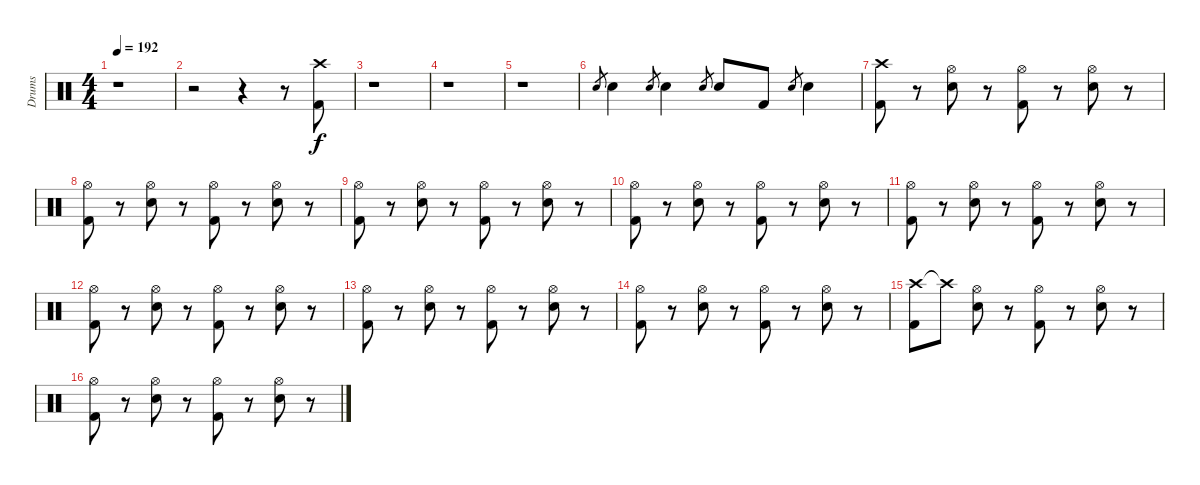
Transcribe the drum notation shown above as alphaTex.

\track ("Drums" "Drums") {instrument percussion}
\staff {score}
\articulation defaults
\ts (4 4)
\tempo 192
\clef neutral
\ks c
r.1{dy f} |
r.2 r.4 r.8 ("Crash high (hit)" "Kick (hit) 2").8 |
r.1 |
r.1 |
r.1 |
"Snare (hit) 2".8{gr} "Snare (hit) 2".4 "Snare (hit) 2".8{gr} "Snare (hit) 2".4 "Snare (hit) 2".8{gr} "Snare (hit) 2".8 "Kick (hit) 2".8 "Snare (hit) 2".8{gr} "Snare (hit) 2".4 |
("Crash high (hit)" "Kick (hit) 2").8 r.8 ("Hi-Hat (open)" "Snare (hit) 2").8 r.8 ("Hi-Hat (open)" "Kick (hit) 2").8 r.8 ("Hi-Hat (open)" "Snare (hit) 2").8 r.8 |
("Hi-Hat (open)" "Kick (hit) 2").8 r.8 ("Hi-Hat (open)" "Snare (hit) 2").8 r.8 ("Hi-Hat (open)" "Kick (hit) 2").8 r.8 ("Hi-Hat (open)" "Snare (hit) 2").8 r.8 |
("Hi-Hat (open)" "Kick (hit) 2").8 r.8 ("Hi-Hat (open)" "Snare (hit) 2").8 r.8 ("Hi-Hat (open)" "Kick (hit) 2").8 r.8 ("Hi-Hat (open)" "Snare (hit) 2").8 r.8 |
("Hi-Hat (open)" "Kick (hit) 2").8 r.8 ("Hi-Hat (open)" "Snare (hit) 2").8 r.8 ("Hi-Hat (open)" "Kick (hit) 2").8 r.8 ("Hi-Hat (open)" "Snare (hit) 2").8 r.8 |
("Hi-Hat (open)" "Kick (hit) 2").8 r.8 ("Hi-Hat (open)" "Snare (hit) 2").8 r.8 ("Hi-Hat (open)" "Kick (hit) 2").8 r.8 ("Hi-Hat (open)" "Snare (hit) 2").8 r.8 |
("Hi-Hat (open)" "Kick (hit) 2").8 r.8 ("Hi-Hat (open)" "Snare (hit) 2").8 r.8 ("Hi-Hat (open)" "Kick (hit) 2").8 r.8 ("Hi-Hat (open)" "Snare (hit) 2").8 r.8 |
("Hi-Hat (open)" "Kick (hit) 2").8 r.8 ("Hi-Hat (open)" "Snare (hit) 2").8 r.8 ("Hi-Hat (open)" "Kick (hit) 2").8 r.8 ("Hi-Hat (open)" "Snare (hit) 2").8 r.8 |
("Hi-Hat (open)" "Kick (hit) 2").8 r.8 ("Hi-Hat (open)" "Snare (hit) 2").8 r.8 ("Hi-Hat (open)" "Kick (hit) 2").8 r.8 ("Hi-Hat (open)" "Snare (hit) 2").8 r.8 |
("Crash high (hit)" "Kick (hit) 2").8 "Crash high (hit)"{t}.8 ("Hi-Hat (open)" "Snare (hit) 2").8 r.8 ("Hi-Hat (open)" "Kick (hit) 2").8 r.8 ("Hi-Hat (open)" "Snare (hit) 2").8 r.8 |
("Hi-Hat (open)" "Kick (hit) 2").8 r.8 ("Hi-Hat (open)" "Snare (hit) 2").8 r.8 ("Hi-Hat (open)" "Kick (hit) 2").8 r.8 ("Hi-Hat (open)" "Snare (hit) 2").8 r.8
